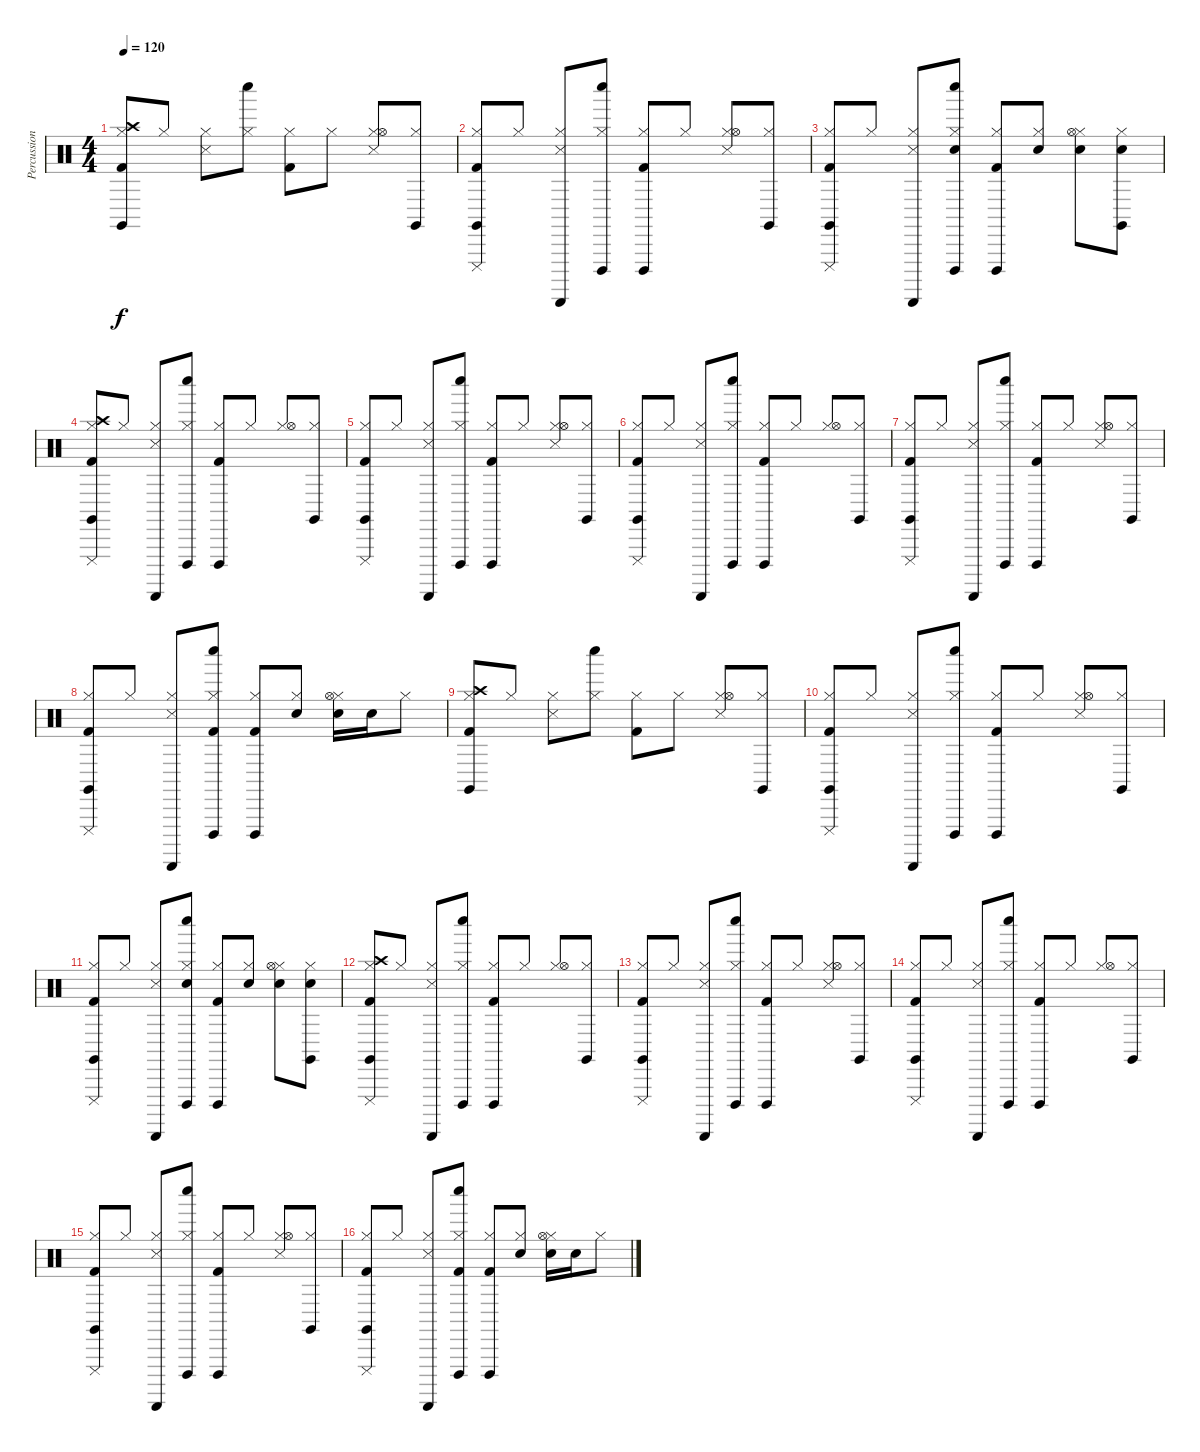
\track ("Percussion" "Percussion") {instrument percussion}
\staff {score}
\articulation defaults
\ts (4 4)
\tempo 120
\clef neutral
\ks c
("Crash high (hit)" "Hi-Hat (closed)" "Kick (hit) 2" "Claves (hit)").8{dy f} "Hi-Hat (closed)".8 ("Hi-Hat (closed)" "Snare (side stick) 3").8 ("Whistle low (hit)" "Hi-Hat (closed)").8 ("Hi-Hat (closed)" "Kick (hit) 2").8 "Hi-Hat (closed)".8 ("Snare (side stick) 3" "Hi-Hat (closed)" "Hi-Hat (open)").8 ("Claves (hit)" "Hi-Hat (closed)").8 |
("Claves (hit)" "Hi-Hat (closed)" "Kick (hit) 2" "Cuica (mute)").8 "Hi-Hat (closed)".8 ("Guiro (scrap-return)" "Hi-Hat (closed)" "Snare (side stick) 3").8 ("Whistle low (hit)" "Hi-Hat (closed)" "Cuica (open)").8 ("Hi-Hat (closed)" "Kick (hit) 2" "Cuica (open)").8 "Hi-Hat (closed)".8 ("Snare (side stick) 3" "Hi-Hat (closed)" "Hi-Hat (open)").8 ("Claves (hit)" "Hi-Hat (closed)").8 |
("Claves (hit)" "Hi-Hat (closed)" "Kick (hit) 2" "Cuica (mute)").8 "Hi-Hat (closed)".8 ("Guiro (scrap-return)" "Hi-Hat (closed)" "Snare (side stick) 3").8 ("Snare (hit) 2" "Hi-Hat (closed)" "Whistle low (hit)" "Cuica (open)").8 ("Hi-Hat (closed)" "Kick (hit) 2" "Cuica (open)").8 ("Snare (hit) 2" "Hi-Hat (closed)").8 ("Snare (hit) 2" "Hi-Hat (closed)" "Hi-Hat (open)").8 ("Snare (hit) 2" "Hi-Hat (closed)" "Claves (hit)").8 |
("Crash high (hit)" "Hi-Hat (closed)" "Claves (hit)" "Kick (hit) 2" "Cuica (mute)").8 "Hi-Hat (closed)".8 ("Guiro (scrap-return)" "Hi-Hat (closed)" "Snare (side stick) 3").8 ("Whistle low (hit)" "Hi-Hat (closed)" "Cuica (open)").8 ("Hi-Hat (closed)" "Kick (hit) 2" "Cuica (open)").8 "Hi-Hat (closed)".8 ("Hi-Hat (closed)" "Hi-Hat (open)").8 ("Claves (hit)" "Hi-Hat (closed)").8 |
("Claves (hit)" "Hi-Hat (closed)" "Kick (hit) 2" "Cuica (mute)").8 "Hi-Hat (closed)".8 ("Guiro (scrap-return)" "Hi-Hat (closed)" "Snare (side stick) 3").8 ("Whistle low (hit)" "Hi-Hat (closed)" "Cuica (open)").8 ("Hi-Hat (closed)" "Kick (hit) 2" "Cuica (open)").8 "Hi-Hat (closed)".8 ("Snare (side stick) 3" "Hi-Hat (closed)" "Hi-Hat (open)").8 ("Claves (hit)" "Hi-Hat (closed)").8 |
("Claves (hit)" "Hi-Hat (closed)" "Kick (hit) 2" "Cuica (mute)").8 "Hi-Hat (closed)".8 ("Guiro (scrap-return)" "Hi-Hat (closed)" "Snare (side stick) 3").8 ("Whistle low (hit)" "Hi-Hat (closed)" "Cuica (open)").8 ("Hi-Hat (closed)" "Kick (hit) 2" "Cuica (open)").8 "Hi-Hat (closed)".8 ("Hi-Hat (closed)" "Hi-Hat (open)").8 ("Claves (hit)" "Hi-Hat (closed)").8 |
("Claves (hit)" "Hi-Hat (closed)" "Kick (hit) 2" "Cuica (mute)").8 "Hi-Hat (closed)".8 ("Guiro (scrap-return)" "Hi-Hat (closed)" "Snare (side stick) 3").8 ("Whistle low (hit)" "Hi-Hat (closed)" "Cuica (open)").8 ("Hi-Hat (closed)" "Kick (hit) 2" "Cuica (open)").8 "Hi-Hat (closed)".8 ("Hi-Hat (closed)" "Snare (side stick) 3" "Hi-Hat (open)").8 ("Claves (hit)" "Hi-Hat (closed)").8 |
("Claves (hit)" "Hi-Hat (closed)" "Kick (hit) 2" "Cuica (mute)").8 "Hi-Hat (closed)".8 ("Guiro (scrap-return)" "Hi-Hat (closed)" "Snare (side stick) 3").8 ("Whistle low (hit)" "Hi-Hat (closed)" "Kick (hit) 2" "Cuica (open)").8 ("Hi-Hat (closed)" "Kick (hit) 2" "Cuica (open)").8 ("Snare (hit) 2" "Hi-Hat (closed)").8 ("Snare (hit) 2" "Hi-Hat (closed)" "Hi-Hat (open)").16 "Snare (hit) 2".16 "Hi-Hat (closed)".8 |
("Crash high (hit)" "Hi-Hat (closed)" "Kick (hit) 2" "Claves (hit)").8 "Hi-Hat (closed)".8 ("Hi-Hat (closed)" "Snare (side stick) 3").8 ("Whistle low (hit)" "Hi-Hat (closed)").8 ("Hi-Hat (closed)" "Kick (hit) 2").8 "Hi-Hat (closed)".8 ("Snare (side stick) 3" "Hi-Hat (closed)" "Hi-Hat (open)").8 ("Claves (hit)" "Hi-Hat (closed)").8 |
("Claves (hit)" "Hi-Hat (closed)" "Kick (hit) 2" "Cuica (mute)").8 "Hi-Hat (closed)".8 ("Guiro (scrap-return)" "Hi-Hat (closed)" "Snare (side stick) 3").8 ("Whistle low (hit)" "Hi-Hat (closed)" "Cuica (open)").8 ("Hi-Hat (closed)" "Kick (hit) 2" "Cuica (open)").8 "Hi-Hat (closed)".8 ("Snare (side stick) 3" "Hi-Hat (closed)" "Hi-Hat (open)").8 ("Claves (hit)" "Hi-Hat (closed)").8 |
("Claves (hit)" "Hi-Hat (closed)" "Kick (hit) 2" "Cuica (mute)").8 "Hi-Hat (closed)".8 ("Guiro (scrap-return)" "Hi-Hat (closed)" "Snare (side stick) 3").8 ("Snare (hit) 2" "Hi-Hat (closed)" "Whistle low (hit)" "Cuica (open)").8 ("Hi-Hat (closed)" "Kick (hit) 2" "Cuica (open)").8 ("Snare (hit) 2" "Hi-Hat (closed)").8 ("Snare (hit) 2" "Hi-Hat (closed)" "Hi-Hat (open)").8 ("Snare (hit) 2" "Hi-Hat (closed)" "Claves (hit)").8 |
("Crash high (hit)" "Hi-Hat (closed)" "Claves (hit)" "Kick (hit) 2" "Cuica (mute)").8 "Hi-Hat (closed)".8 ("Guiro (scrap-return)" "Hi-Hat (closed)" "Snare (side stick) 3").8 ("Whistle low (hit)" "Hi-Hat (closed)" "Cuica (open)").8 ("Hi-Hat (closed)" "Kick (hit) 2" "Cuica (open)").8 "Hi-Hat (closed)".8 ("Hi-Hat (closed)" "Hi-Hat (open)").8 ("Claves (hit)" "Hi-Hat (closed)").8 |
("Claves (hit)" "Hi-Hat (closed)" "Kick (hit) 2" "Cuica (mute)").8 "Hi-Hat (closed)".8 ("Guiro (scrap-return)" "Hi-Hat (closed)" "Snare (side stick) 3").8 ("Whistle low (hit)" "Hi-Hat (closed)" "Cuica (open)").8 ("Hi-Hat (closed)" "Kick (hit) 2" "Cuica (open)").8 "Hi-Hat (closed)".8 ("Snare (side stick) 3" "Hi-Hat (closed)" "Hi-Hat (open)").8 ("Claves (hit)" "Hi-Hat (closed)").8 |
("Claves (hit)" "Hi-Hat (closed)" "Kick (hit) 2" "Cuica (mute)").8 "Hi-Hat (closed)".8 ("Guiro (scrap-return)" "Hi-Hat (closed)" "Snare (side stick) 3").8 ("Whistle low (hit)" "Hi-Hat (closed)" "Cuica (open)").8 ("Hi-Hat (closed)" "Kick (hit) 2" "Cuica (open)").8 "Hi-Hat (closed)".8 ("Hi-Hat (closed)" "Hi-Hat (open)").8 ("Claves (hit)" "Hi-Hat (closed)").8 |
("Claves (hit)" "Hi-Hat (closed)" "Kick (hit) 2" "Cuica (mute)").8 "Hi-Hat (closed)".8 ("Guiro (scrap-return)" "Hi-Hat (closed)" "Snare (side stick) 3").8 ("Whistle low (hit)" "Hi-Hat (closed)" "Cuica (open)").8 ("Hi-Hat (closed)" "Kick (hit) 2" "Cuica (open)").8 "Hi-Hat (closed)".8 ("Hi-Hat (closed)" "Snare (side stick) 3" "Hi-Hat (open)").8 ("Claves (hit)" "Hi-Hat (closed)").8 |
("Claves (hit)" "Hi-Hat (closed)" "Kick (hit) 2" "Cuica (mute)").8 "Hi-Hat (closed)".8 ("Guiro (scrap-return)" "Hi-Hat (closed)" "Snare (side stick) 3").8 ("Whistle low (hit)" "Hi-Hat (closed)" "Kick (hit) 2" "Cuica (open)").8 ("Hi-Hat (closed)" "Kick (hit) 2" "Cuica (open)").8 ("Snare (hit) 2" "Hi-Hat (closed)").8 ("Snare (hit) 2" "Hi-Hat (closed)" "Hi-Hat (open)").16 "Snare (hit) 2".16 "Hi-Hat (closed)".8
